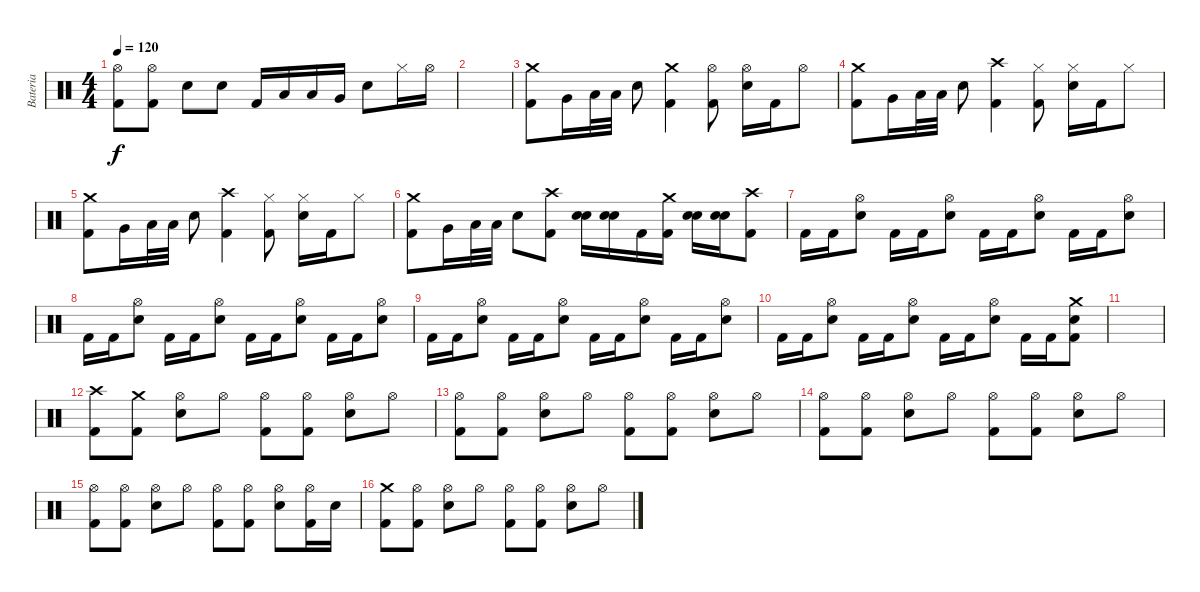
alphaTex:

\track ("Bateria" "Bateria") {instrument percussion}
\staff {score}
\articulation defaults
\ts (4 4)
\tempo 120
\clef neutral
\ks c
("Hi-Hat (open)" "Kick (hit) 2").8{dy f} ("Hi-Hat (open)" "Kick (hit) 2").8 "Electric Snare (hit)".8 "Electric Snare (hit)".8 "Kick (hit) 2".16 "Low Tom (hit)".16 "Low Tom (hit)".16 "Very Low Tom (hit)".16 "Electric Snare (hit)".8 "Hi-Hat (closed)".16 "Hi-Hat (open)".16 |
|
("Crash medium (hit)" "Kick (hit) 2").8 "Very Low Tom (hit)".16 "Low Tom (hit)".32 "Low Tom (hit)".32 "Electric Snare (hit)".8 ("Crash medium (hit)" "Kick (hit) 2").4 ("Hi-Hat (open)" "Kick (hit) 2").8 ("Hi-Hat (open)" "Electric Snare (hit)").16 "Kick (hit) 2".16 "Hi-Hat (open)".8 |
("Crash medium (hit)" "Kick (hit) 2").8 "Very Low Tom (hit)".16 "Low Tom (hit)".32 "Low Tom (hit)".32 "Electric Snare (hit)".8 ("Crash high (hit)" "Kick (hit) 2").4 ("Hi-Hat (closed)" "Kick (hit) 2").8 ("Hi-Hat (closed)" "Electric Snare (hit)").16 "Kick (hit) 2".16 "Hi-Hat (closed)".8 |
("Crash medium (hit)" "Kick (hit) 2").8 "Very Low Tom (hit)".16 "Low Tom (hit)".32 "Low Tom (hit)".32 "Electric Snare (hit)".8 ("Crash high (hit)" "Kick (hit) 2").4 ("Hi-Hat (closed)" "Kick (hit) 2").8 ("Hi-Hat (closed)" "Electric Snare (hit)").16 "Kick (hit) 2".16 "Hi-Hat (closed)".8 |
("Crash medium (hit)" "Kick (hit) 2").8 "Very Low Tom (hit)".16 "Low Tom (hit)".32 "Low Tom (hit)".32 "Electric Snare (hit)".8 ("Crash high (hit)" "Kick (hit) 2").8 ("Electric Snare (hit)" "Electric Snare (hit)").16 ("Electric Snare (hit)" "Electric Snare (hit)").16 "Kick (hit) 2".16 ("Crash medium (hit)" "Kick (hit) 2").16 ("Electric Snare (hit)" "Electric Snare (hit)").16 ("Electric Snare (hit)" "Electric Snare (hit)").16 ("Crash high (hit)" "Kick (hit) 2").8 |
"Kick (hit) 2".16 "Kick (hit) 2".16 ("Hi-Hat (open)" "Electric Snare (hit)").8 "Kick (hit) 2".16 "Kick (hit) 2".16 ("Hi-Hat (open)" "Electric Snare (hit)").8 "Kick (hit) 2".16 "Kick (hit) 2".16 ("Hi-Hat (open)" "Electric Snare (hit)").8 "Kick (hit) 2".16 "Kick (hit) 2".16 ("Hi-Hat (open)" "Electric Snare (hit)").8 |
"Kick (hit) 2".16 "Kick (hit) 2".16 ("Hi-Hat (open)" "Electric Snare (hit)").8 "Kick (hit) 2".16 "Kick (hit) 2".16 ("Hi-Hat (open)" "Electric Snare (hit)").8 "Kick (hit) 2".16 "Kick (hit) 2".16 ("Hi-Hat (open)" "Electric Snare (hit)").8 "Kick (hit) 2".16 "Kick (hit) 2".16 ("Hi-Hat (open)" "Electric Snare (hit)").8 |
"Kick (hit) 2".16 "Kick (hit) 2".16 ("Hi-Hat (open)" "Electric Snare (hit)").8 "Kick (hit) 2".16 "Kick (hit) 2".16 ("Hi-Hat (open)" "Electric Snare (hit)").8 "Kick (hit) 2".16 "Kick (hit) 2".16 ("Hi-Hat (open)" "Electric Snare (hit)").8 "Kick (hit) 2".16 "Kick (hit) 2".16 ("Hi-Hat (open)" "Electric Snare (hit)").8 |
"Kick (hit) 2".16 "Kick (hit) 2".16 ("Hi-Hat (open)" "Electric Snare (hit)").8 "Kick (hit) 2".16 "Kick (hit) 2".16 ("Hi-Hat (open)" "Electric Snare (hit)").8 "Kick (hit) 2".16 "Kick (hit) 2".16 ("Hi-Hat (open)" "Electric Snare (hit)").8 "Kick (hit) 2".16 "Kick (hit) 2".16 ("Crash medium (hit)" "Electric Snare (hit)" "Kick (hit) 2").8 |
|
("Crash high (hit)" "Kick (hit) 2").8 ("Crash medium (hit)" "Kick (hit) 2").8 ("Hi-Hat (open)" "Electric Snare (hit)").8 "Hi-Hat (open)".8 ("Hi-Hat (open)" "Kick (hit) 2").8 ("Hi-Hat (open)" "Kick (hit) 2").8 ("Hi-Hat (open)" "Electric Snare (hit)").8 "Hi-Hat (open)".8 |
("Hi-Hat (open)" "Kick (hit) 2").8 ("Hi-Hat (open)" "Kick (hit) 2").8 ("Hi-Hat (open)" "Electric Snare (hit)").8 "Hi-Hat (open)".8 ("Hi-Hat (open)" "Kick (hit) 2").8 ("Hi-Hat (open)" "Kick (hit) 2").8 ("Hi-Hat (open)" "Electric Snare (hit)").8 "Hi-Hat (open)".8 |
("Hi-Hat (open)" "Kick (hit) 2").8 ("Hi-Hat (open)" "Kick (hit) 2").8 ("Hi-Hat (open)" "Electric Snare (hit)").8 "Hi-Hat (open)".8 ("Hi-Hat (open)" "Kick (hit) 2").8 ("Hi-Hat (open)" "Kick (hit) 2").8 ("Hi-Hat (open)" "Electric Snare (hit)").8 "Hi-Hat (open)".8 |
("Hi-Hat (open)" "Kick (hit) 2").8 ("Hi-Hat (open)" "Kick (hit) 2").8 ("Hi-Hat (open)" "Electric Snare (hit)").8 "Hi-Hat (open)".8 ("Hi-Hat (open)" "Kick (hit) 2").8 ("Hi-Hat (open)" "Kick (hit) 2").8 ("Hi-Hat (open)" "Electric Snare (hit)").8 ("Hi-Hat (open)" "Kick (hit) 2").16 "Electric Snare (hit)".16 |
("Crash medium (hit)" "Kick (hit) 2").8 ("Hi-Hat (open)" "Kick (hit) 2").8 ("Hi-Hat (open)" "Electric Snare (hit)").8 "Hi-Hat (open)".8 ("Hi-Hat (open)" "Kick (hit) 2").8 ("Hi-Hat (open)" "Kick (hit) 2").8 ("Hi-Hat (open)" "Electric Snare (hit)").8 "Hi-Hat (open)".8
